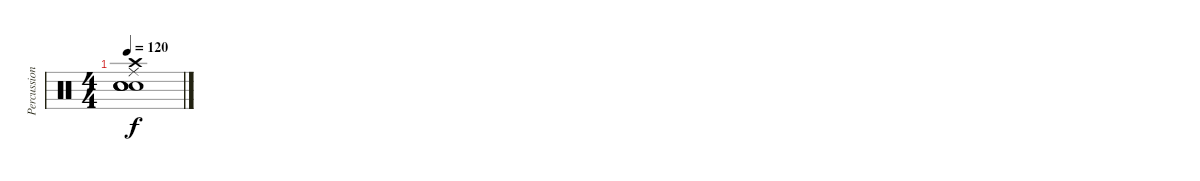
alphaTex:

\track ("Percussions" "Percussion") {instrument percussion}
\staff {score}
\articulation defaults
\ts (4 4)
\tempo 120
\clef neutral
\ks c
("Crash high (hit)" "Electric Snare (hit)" "Electric Snare (hit)" "Ride (middle)" "Electric Snare (hit)" "Electric Snare (hit)").1{dy f}
